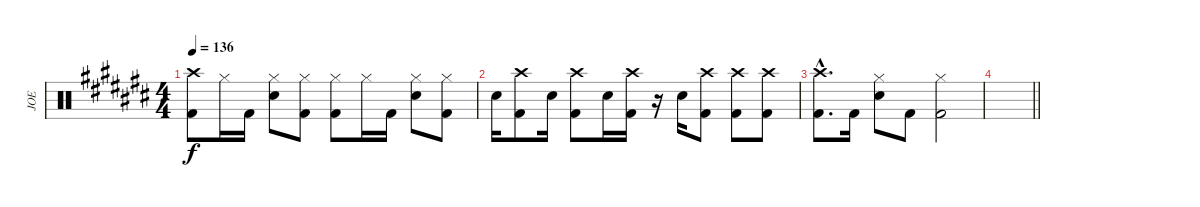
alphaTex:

\track ("JOE" "JOE") {instrument percussion}
\staff {score}
\articulation defaults
\ts (4 4)
\tempo 136
\clef neutral
\ks c#
("Crash high (hit)" "Kick (hit) 2").8{dy f} "Hi-Hat (closed)".16 "Kick (hit) 2".16 ("Hi-Hat (closed)" "Snare (hit) 2").8 ("Hi-Hat (closed)" "Kick (hit) 2").8 ("Hi-Hat (closed)" "Kick (hit) 2").8 "Hi-Hat (closed)".16 "Kick (hit) 2".16 ("Hi-Hat (closed)" "Snare (hit) 2").8 ("Hi-Hat (closed)" "Kick (hit) 2").8 |
"Snare (hit) 2".16 ("Crash high (hit)" "Kick (hit) 2").8 "Snare (hit) 2".16 ("Crash high (hit)" "Kick (hit) 2").8 "Snare (hit) 2".16 ("Crash high (hit)" "Kick (hit) 2").16 r.16 "Snare (hit) 2".16 ("Crash high (hit)" "Kick (hit) 2").8 ("Crash high (hit)" "Kick (hit) 2").8 ("Crash high (hit)" "Kick (hit) 2").8 |
("Crash high (hit)"{hac} "Kick (hit) 2"{hac}).8{d} "Kick (hit) 2".16 ("Hi-Hat (closed)" "Snare (hit) 2").8 "Kick (hit) 2".8 ("Hi-Hat (closed)" "Kick (hit) 2").2 |
\barLineRight lightlight
